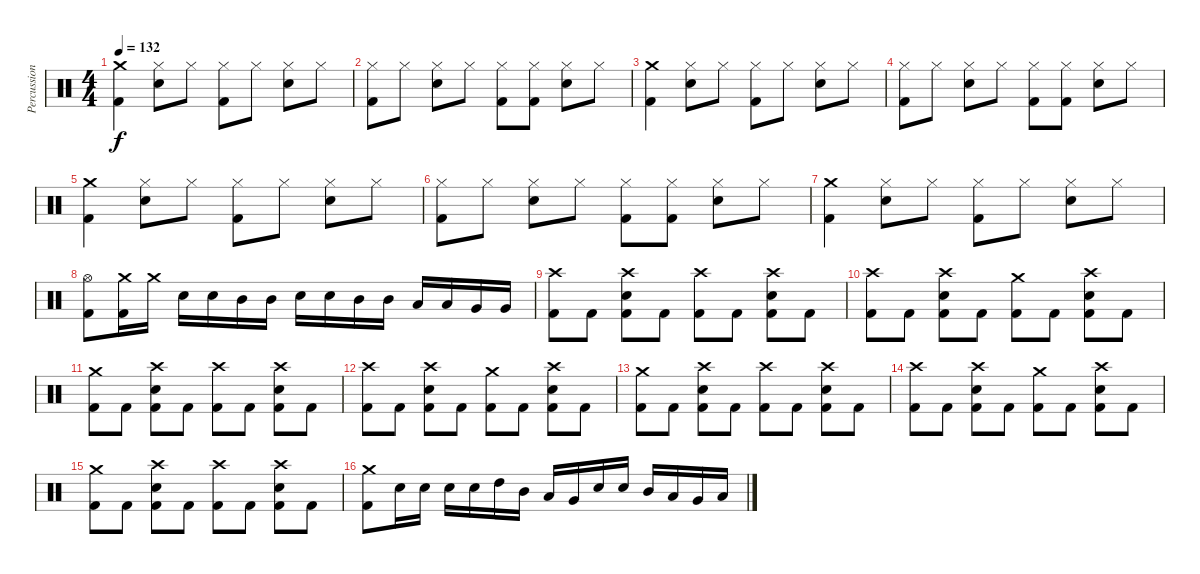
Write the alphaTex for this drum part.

\track ("Percussion" "Percussion") {instrument percussion}
\staff {score}
\articulation defaults
\ts (4 4)
\tempo 132
\clef neutral
\ks c
("Kick (hit) 2" "Crash medium (hit)").4{dy f} ("Snare (hit) 2" "Hi-Hat (closed)").8 "Hi-Hat (closed)".8 ("Kick (hit) 2" "Hi-Hat (closed)").8 "Hi-Hat (closed)".8 ("Snare (hit) 2" "Hi-Hat (closed)").8 "Hi-Hat (closed)".8 |
("Kick (hit) 2" "Hi-Hat (closed)").8 "Hi-Hat (closed)".8 ("Snare (hit) 2" "Hi-Hat (closed)").8 "Hi-Hat (closed)".8 ("Kick (hit) 2" "Hi-Hat (closed)").8 ("Kick (hit) 2" "Hi-Hat (closed)").8 ("Snare (hit) 2" "Hi-Hat (closed)").8 "Hi-Hat (closed)".8 |
("Kick (hit) 2" "Crash medium (hit)").4 ("Snare (hit) 2" "Hi-Hat (closed)").8 "Hi-Hat (closed)".8 ("Kick (hit) 2" "Hi-Hat (closed)").8 "Hi-Hat (closed)".8 ("Snare (hit) 2" "Hi-Hat (closed)").8 "Hi-Hat (closed)".8 |
("Kick (hit) 2" "Hi-Hat (closed)").8 "Hi-Hat (closed)".8 ("Snare (hit) 2" "Hi-Hat (closed)").8 "Hi-Hat (closed)".8 ("Kick (hit) 2" "Hi-Hat (closed)").8 ("Kick (hit) 2" "Hi-Hat (closed)").8 ("Snare (hit) 2" "Hi-Hat (closed)").8 "Hi-Hat (closed)".8 |
("Kick (hit) 2" "Crash medium (hit)").4 ("Snare (hit) 2" "Hi-Hat (closed)").8 "Hi-Hat (closed)".8 ("Kick (hit) 2" "Hi-Hat (closed)").8 "Hi-Hat (closed)".8 ("Snare (hit) 2" "Hi-Hat (closed)").8 "Hi-Hat (closed)".8 |
("Kick (hit) 2" "Hi-Hat (closed)").8 "Hi-Hat (closed)".8 ("Snare (hit) 2" "Hi-Hat (closed)").8 "Hi-Hat (closed)".8 ("Kick (hit) 2" "Hi-Hat (closed)").8 ("Kick (hit) 2" "Hi-Hat (closed)").8 ("Snare (hit) 2" "Hi-Hat (closed)").8 "Hi-Hat (closed)".8 |
("Kick (hit) 2" "Crash medium (hit)").4 ("Snare (hit) 2" "Hi-Hat (closed)").8 "Hi-Hat (closed)".8 ("Kick (hit) 2" "Hi-Hat (closed)").8 "Hi-Hat (closed)".8 ("Snare (hit) 2" "Hi-Hat (closed)").8 "Hi-Hat (closed)".8 |
("Kick (hit) 2" "Hi-Hat (open)").8 ("Kick (hit) 2" "Crash medium (hit)").16 "Crash medium (hit)".16 "Snare (hit) 2".16 "Snare (hit) 2".16 "Mid Tom (hit)".16 "Mid Tom (hit)".16 "Snare (hit) 2".16 "Snare (hit) 2".16 "Mid Tom (hit)".16 "Mid Tom (hit)".16 "Low Tom (hit)".16 "Low Tom (hit)".16 "Very Low Tom (hit)".16 "Very Low Tom (hit)".16 |
("Kick (hit) 2" "Crash high (hit)").8 "Kick (hit) 2".8 ("Snare (hit) 2" "Kick (hit) 2" "Crash high (hit)").8 "Kick (hit) 2".8 ("Kick (hit) 2" "Crash high (hit)").8 "Kick (hit) 2".8 ("Snare (hit) 2" "Kick (hit) 2" "Crash high (hit)").8 "Kick (hit) 2".8 |
("Kick (hit) 2" "Crash high (hit)").8 "Kick (hit) 2".8 ("Snare (hit) 2" "Kick (hit) 2" "Crash high (hit)").8 "Kick (hit) 2".8 ("Kick (hit) 2" "Crash medium (hit)").8 "Kick (hit) 2".8 ("Snare (hit) 2" "Kick (hit) 2" "Crash high (hit)").8 "Kick (hit) 2".8 |
("Kick (hit) 2" "Crash medium (hit)").8 "Kick (hit) 2".8 ("Snare (hit) 2" "Kick (hit) 2" "Crash high (hit)").8 "Kick (hit) 2".8 ("Kick (hit) 2" "Crash high (hit)").8 "Kick (hit) 2".8 ("Snare (hit) 2" "Kick (hit) 2" "Crash high (hit)").8 "Kick (hit) 2".8 |
("Kick (hit) 2" "Crash high (hit)").8 "Kick (hit) 2".8 ("Snare (hit) 2" "Kick (hit) 2" "Crash high (hit)").8 "Kick (hit) 2".8 ("Kick (hit) 2" "Crash medium (hit)").8 "Kick (hit) 2".8 ("Snare (hit) 2" "Kick (hit) 2" "Crash high (hit)").8 "Kick (hit) 2".8 |
("Kick (hit) 2" "Crash medium (hit)").8 "Kick (hit) 2".8 ("Snare (hit) 2" "Kick (hit) 2" "Crash high (hit)").8 "Kick (hit) 2".8 ("Kick (hit) 2" "Crash high (hit)").8 "Kick (hit) 2".8 ("Snare (hit) 2" "Kick (hit) 2" "Crash high (hit)").8 "Kick (hit) 2".8 |
("Kick (hit) 2" "Crash high (hit)").8 "Kick (hit) 2".8 ("Snare (hit) 2" "Kick (hit) 2" "Crash high (hit)").8 "Kick (hit) 2".8 ("Kick (hit) 2" "Crash medium (hit)").8 "Kick (hit) 2".8 ("Snare (hit) 2" "Kick (hit) 2" "Crash high (hit)").8 "Kick (hit) 2".8 |
("Kick (hit) 2" "Crash medium (hit)").8 "Kick (hit) 2".8 ("Snare (hit) 2" "Kick (hit) 2" "Crash high (hit)").8 "Kick (hit) 2".8 ("Kick (hit) 2" "Crash high (hit)").8 "Kick (hit) 2".8 ("Snare (hit) 2" "Kick (hit) 2" "Crash high (hit)").8 "Kick (hit) 2".8 |
("Kick (hit) 2" "Crash medium (hit)").8 "Snare (hit) 2".16 "Snare (hit) 2".16 "Snare (hit) 2".16 "Snare (hit) 2".16 "High Tom (hit)".16 "Mid Tom (hit)".16 "Low Tom (hit)".16 "Very Low Tom (hit)".16 "Snare (hit) 2".16 "Snare (hit) 2".16 "Mid Tom (hit)".16 "Low Tom (hit)".16 "Very Low Tom (hit)".16 "Low Floor Tom (hit)".16
